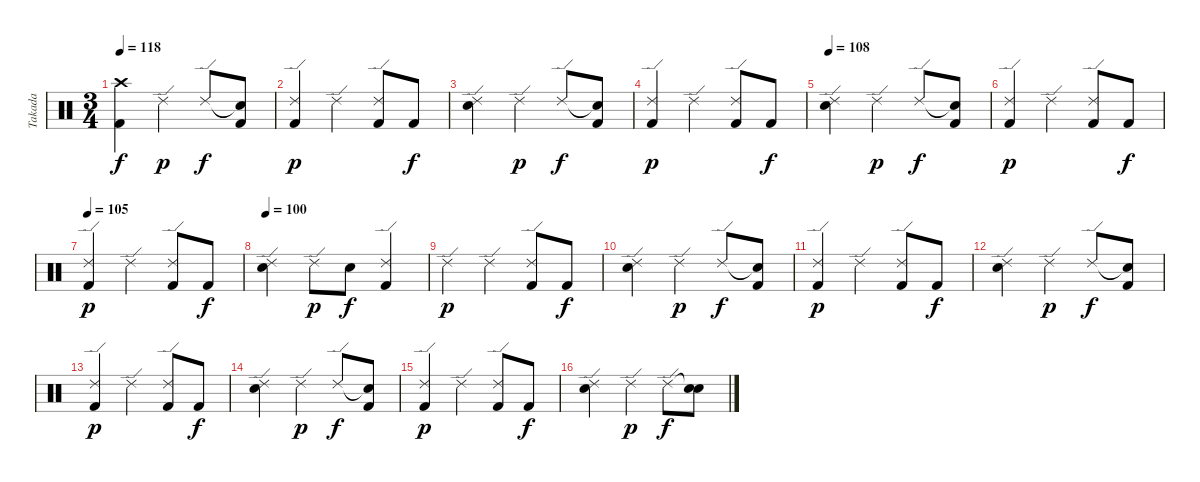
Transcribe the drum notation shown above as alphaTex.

\track ("Takada" "Takada") {instrument percussion}
\staff {score}
\articulation defaults
\ts (3 4)
\tempo 118
\clef neutral
\ks c
("Crash high (hit)" "Kick (hit) 2").4{dy f} "Ride (edge) 2".4{dy p} "Ride (edge) 2".8{dy f} ("Snare (hit)"{t} "Kick (hit) 2").8 |
("Ride (edge) 2" "Kick (hit) 2").4{dy p} "Ride (edge) 2".4 ("Ride (edge) 2" "Kick (hit) 2").8 "Kick (hit) 2".8{dy f} |
("Ride (edge) 2" "Electric Snare (hit)").4 "Ride (edge) 2".4{dy p} "Ride (edge) 2".8{dy f} ("Snare (hit)"{t} "Kick (hit) 2").8 |
("Ride (edge) 2" "Kick (hit) 2").4{dy p} "Ride (edge) 2".4 ("Ride (edge) 2" "Kick (hit) 2").8 "Kick (hit) 2".8{dy f} |
\tempo 108
("Ride (edge) 2" "Electric Snare (hit)").4 "Ride (edge) 2".4{dy p} "Ride (edge) 2".8{dy f} ("Snare (hit)"{t} "Kick (hit) 2").8 |
("Ride (edge) 2" "Kick (hit) 2").4{dy p} "Ride (edge) 2".4 ("Ride (edge) 2" "Kick (hit) 2").8 "Kick (hit) 2".8{dy f} |
\tempo 105
("Ride (edge) 2" "Kick (hit) 2").4{dy p} "Ride (edge) 2".4 ("Ride (edge) 2" "Kick (hit) 2").8 "Kick (hit) 2".8{dy f} |
\tempo 100
("Ride (edge) 2" "Electric Snare (hit)").4 "Ride (edge) 2".8{dy p} "Electric Snare (hit)".8{dy f} ("Ride (edge) 2" "Kick (hit) 2").4 |
"Ride (edge) 2".4{dy p} "Ride (edge) 2".4 ("Ride (edge) 2" "Kick (hit) 2").8 "Kick (hit) 2".8{dy f} |
("Ride (edge) 2" "Electric Snare (hit)").4 "Ride (edge) 2".4{dy p} "Ride (edge) 2".8{dy f} ("Snare (hit)"{t} "Kick (hit) 2").8 |
("Ride (edge) 2" "Kick (hit) 2").4{dy p} "Ride (edge) 2".4 ("Ride (edge) 2" "Kick (hit) 2").8 "Kick (hit) 2".8{dy f} |
("Ride (edge) 2" "Electric Snare (hit)").4 "Ride (edge) 2".4{dy p} "Ride (edge) 2".8{dy f} ("Snare (hit)"{t} "Kick (hit) 2").8 |
("Ride (edge) 2" "Kick (hit) 2").4{dy p} "Ride (edge) 2".4 ("Ride (edge) 2" "Kick (hit) 2").8 "Kick (hit) 2".8{dy f} |
("Ride (edge) 2" "Electric Snare (hit)").4 "Ride (edge) 2".4{dy p} "Ride (edge) 2".8{dy f} ("Snare (hit)"{t} "Kick (hit) 2").8 |
("Ride (edge) 2" "Kick (hit) 2").4{dy p} "Ride (edge) 2".4 ("Ride (edge) 2" "Kick (hit) 2").8 "Kick (hit) 2".8{dy f} |
("Ride (edge) 2" "Electric Snare (hit)").4 "Ride (edge) 2".4{dy p} "Ride (edge) 2".8{dy f} ("Snare (hit)"{t} "Electric Snare (hit)").8
